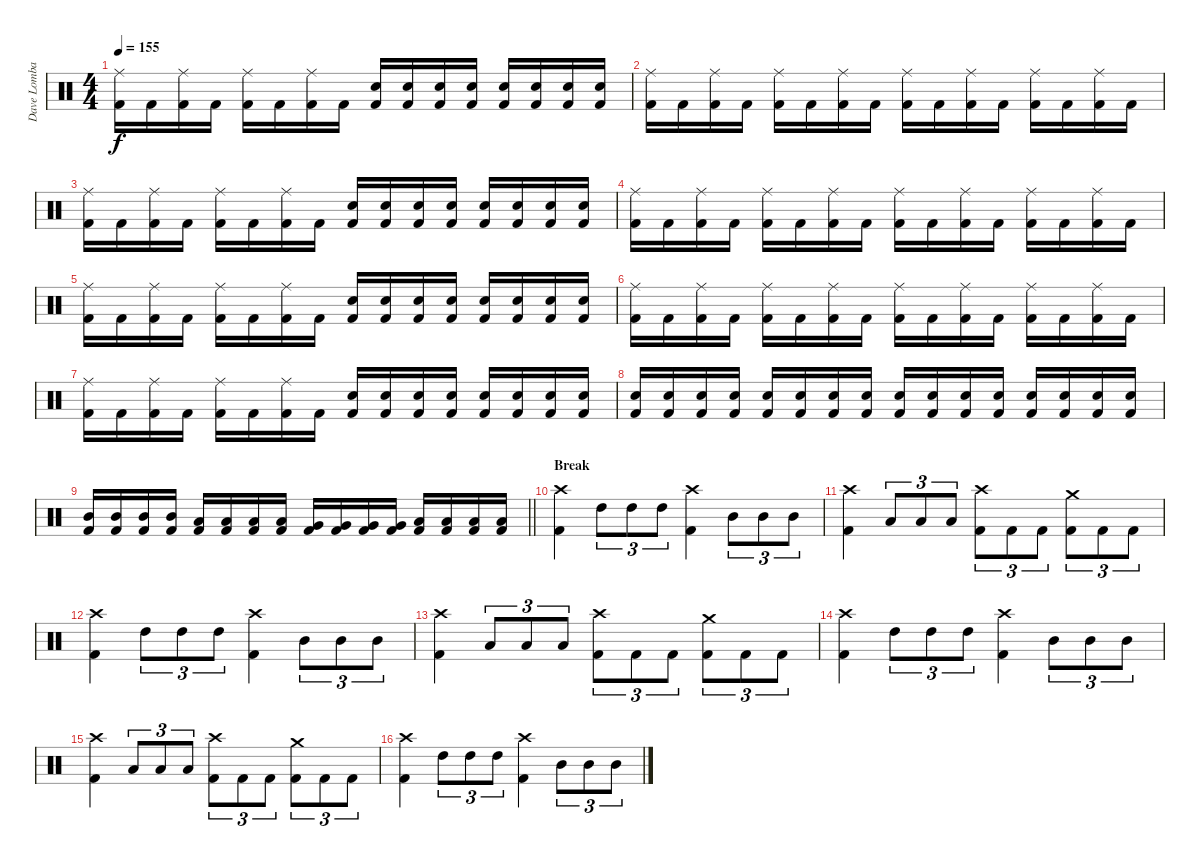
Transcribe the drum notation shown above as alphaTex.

\track ("Dave Lombardo (Drums)" "Dave Lomba") {instrument percussion}
\staff {score}
\articulation defaults
\ts (4 4)
\tempo 155
\clef neutral
\ks c
("Ride (middle)" "Kick (hit) 2").16{dy f} "Kick (hit) 2".16 ("Ride (middle)" "Kick (hit) 2").16 "Kick (hit) 2".16 ("Ride (middle)" "Kick (hit) 2").16 "Kick (hit) 2".16 ("Ride (middle)" "Kick (hit) 2").16 "Kick (hit) 2".16 ("Snare (hit) 2" "Kick (hit) 2").16 ("Snare (hit) 2" "Kick (hit) 2").16 ("Snare (hit) 2" "Kick (hit) 2").16 ("Snare (hit) 2" "Kick (hit) 2").16 ("Snare (hit) 2" "Kick (hit) 2").16 ("Snare (hit) 2" "Kick (hit) 2").16 ("Snare (hit) 2" "Kick (hit) 2").16 ("Snare (hit) 2" "Kick (hit) 2").16 |
("Ride (middle)" "Kick (hit) 2").16 "Kick (hit) 2".16 ("Ride (middle)" "Kick (hit) 2").16 "Kick (hit) 2".16 ("Ride (middle)" "Kick (hit) 2").16 "Kick (hit) 2".16 ("Ride (middle)" "Kick (hit) 2").16 "Kick (hit) 2".16 ("Ride (middle)" "Kick (hit) 2").16 "Kick (hit) 2".16 ("Ride (middle)" "Kick (hit) 2").16 "Kick (hit) 2".16 ("Ride (middle)" "Kick (hit) 2").16 "Kick (hit) 2".16 ("Ride (middle)" "Kick (hit) 2").16 "Kick (hit) 2".16 |
("Ride (middle)" "Kick (hit) 2").16 "Kick (hit) 2".16 ("Ride (middle)" "Kick (hit) 2").16 "Kick (hit) 2".16 ("Ride (middle)" "Kick (hit) 2").16 "Kick (hit) 2".16 ("Ride (middle)" "Kick (hit) 2").16 "Kick (hit) 2".16 ("Snare (hit) 2" "Kick (hit) 2").16 ("Snare (hit) 2" "Kick (hit) 2").16 ("Snare (hit) 2" "Kick (hit) 2").16 ("Snare (hit) 2" "Kick (hit) 2").16 ("Snare (hit) 2" "Kick (hit) 2").16 ("Snare (hit) 2" "Kick (hit) 2").16 ("Snare (hit) 2" "Kick (hit) 2").16 ("Snare (hit) 2" "Kick (hit) 2").16 |
("Ride (middle)" "Kick (hit) 2").16 "Kick (hit) 2".16 ("Ride (middle)" "Kick (hit) 2").16 "Kick (hit) 2".16 ("Ride (middle)" "Kick (hit) 2").16 "Kick (hit) 2".16 ("Ride (middle)" "Kick (hit) 2").16 "Kick (hit) 2".16 ("Ride (middle)" "Kick (hit) 2").16 "Kick (hit) 2".16 ("Ride (middle)" "Kick (hit) 2").16 "Kick (hit) 2".16 ("Ride (middle)" "Kick (hit) 2").16 "Kick (hit) 2".16 ("Ride (middle)" "Kick (hit) 2").16 "Kick (hit) 2".16 |
("Ride (middle)" "Kick (hit) 2").16 "Kick (hit) 2".16 ("Ride (middle)" "Kick (hit) 2").16 "Kick (hit) 2".16 ("Ride (middle)" "Kick (hit) 2").16 "Kick (hit) 2".16 ("Ride (middle)" "Kick (hit) 2").16 "Kick (hit) 2".16 ("Snare (hit) 2" "Kick (hit) 2").16 ("Snare (hit) 2" "Kick (hit) 2").16 ("Snare (hit) 2" "Kick (hit) 2").16 ("Snare (hit) 2" "Kick (hit) 2").16 ("Snare (hit) 2" "Kick (hit) 2").16 ("Snare (hit) 2" "Kick (hit) 2").16 ("Snare (hit) 2" "Kick (hit) 2").16 ("Snare (hit) 2" "Kick (hit) 2").16 |
("Ride (middle)" "Kick (hit) 2").16 "Kick (hit) 2".16 ("Ride (middle)" "Kick (hit) 2").16 "Kick (hit) 2".16 ("Ride (middle)" "Kick (hit) 2").16 "Kick (hit) 2".16 ("Ride (middle)" "Kick (hit) 2").16 "Kick (hit) 2".16 ("Ride (middle)" "Kick (hit) 2").16 "Kick (hit) 2".16 ("Ride (middle)" "Kick (hit) 2").16 "Kick (hit) 2".16 ("Ride (middle)" "Kick (hit) 2").16 "Kick (hit) 2".16 ("Ride (middle)" "Kick (hit) 2").16 "Kick (hit) 2".16 |
("Ride (middle)" "Kick (hit) 2").16 "Kick (hit) 2".16 ("Ride (middle)" "Kick (hit) 2").16 "Kick (hit) 2".16 ("Ride (middle)" "Kick (hit) 2").16 "Kick (hit) 2".16 ("Ride (middle)" "Kick (hit) 2").16 "Kick (hit) 2".16 ("Snare (hit) 2" "Kick (hit) 2").16 ("Snare (hit) 2" "Kick (hit) 2").16 ("Snare (hit) 2" "Kick (hit) 2").16 ("Snare (hit) 2" "Kick (hit) 2").16 ("Snare (hit) 2" "Kick (hit) 2").16 ("Snare (hit) 2" "Kick (hit) 2").16 ("Snare (hit) 2" "Kick (hit) 2").16 ("Snare (hit) 2" "Kick (hit) 2").16 |
("Snare (hit) 2" "Kick (hit) 2").16 ("Snare (hit) 2" "Kick (hit) 2").16 ("Snare (hit) 2" "Kick (hit) 2").16 ("Snare (hit) 2" "Kick (hit) 2").16 ("Snare (hit) 2" "Kick (hit) 2").16 ("Snare (hit) 2" "Kick (hit) 2").16 ("Snare (hit) 2" "Kick (hit) 2").16 ("Snare (hit) 2" "Kick (hit) 2").16 ("Snare (hit) 2" "Kick (hit) 2").16 ("Snare (hit) 2" "Kick (hit) 2").16 ("Snare (hit) 2" "Kick (hit) 2").16 ("Snare (hit) 2" "Kick (hit) 2").16 ("Snare (hit) 2" "Kick (hit) 2").16 ("Snare (hit) 2" "Kick (hit) 2").16 ("Snare (hit) 2" "Kick (hit) 2").16 ("Snare (hit) 2" "Kick (hit) 2").16 |
\barLineRight lightlight
("Mid Tom (hit)" "Kick (hit) 2").16 ("Mid Tom (hit)" "Kick (hit) 2").16 ("Mid Tom (hit)" "Kick (hit) 2").16 ("Mid Tom (hit)" "Kick (hit) 2").16 ("Low Tom (hit)" "Kick (hit) 2").16 ("Low Tom (hit)" "Kick (hit) 2").16 ("Low Tom (hit)" "Kick (hit) 2").16 ("Low Tom (hit)" "Kick (hit) 2").16 ("Very Low Tom (hit)" "Kick (hit) 2").16 ("Very Low Tom (hit)" "Kick (hit) 2").16 ("Very Low Tom (hit)" "Kick (hit) 2").16 ("Very Low Tom (hit)" "Kick (hit) 2").16 ("Low Floor Tom (hit)" "Kick (hit) 2").16 ("Low Floor Tom (hit)" "Kick (hit) 2").16 ("Low Floor Tom (hit)" "Kick (hit) 2").16 ("Low Floor Tom (hit)" "Kick (hit) 2").16 |
\section ("" "Break")
("Crash high (hit)" "Kick (hit) 2").4 "High Tom (hit)".8{tu (3 2)} "High Tom (hit)".8{tu (3 2)} "High Tom (hit)".8{tu (3 2)} ("Crash high (hit)" "Kick (hit) 2").4 "Mid Tom (hit)".8{tu (3 2)} "Mid Tom (hit)".8{tu (3 2)} "Mid Tom (hit)".8{tu (3 2)} |
("Crash high (hit)" "Kick (hit) 2").4 "Low Tom (hit)".8{tu (3 2)} "Low Tom (hit)".8{tu (3 2)} "Low Tom (hit)".8{tu (3 2)} ("Crash high (hit)" "Kick (hit) 2").8{tu (3 2)} "Kick (hit) 2".8{tu (3 2)} "Kick (hit) 2".8{tu (3 2)} ("Crash medium (hit)" "Kick (hit) 2").8{tu (3 2)} "Kick (hit) 2".8{tu (3 2)} "Kick (hit) 2".8{tu (3 2)} |
("Crash high (hit)" "Kick (hit) 2").4 "High Tom (hit)".8{tu (3 2)} "High Tom (hit)".8{tu (3 2)} "High Tom (hit)".8{tu (3 2)} ("Crash high (hit)" "Kick (hit) 2").4 "Mid Tom (hit)".8{tu (3 2)} "Mid Tom (hit)".8{tu (3 2)} "Mid Tom (hit)".8{tu (3 2)} |
("Crash high (hit)" "Kick (hit) 2").4 "Low Tom (hit)".8{tu (3 2)} "Low Tom (hit)".8{tu (3 2)} "Low Tom (hit)".8{tu (3 2)} ("Crash high (hit)" "Kick (hit) 2").8{tu (3 2)} "Kick (hit) 2".8{tu (3 2)} "Kick (hit) 2".8{tu (3 2)} ("Crash medium (hit)" "Kick (hit) 2").8{tu (3 2)} "Kick (hit) 2".8{tu (3 2)} "Kick (hit) 2".8{tu (3 2)} |
("Crash high (hit)" "Kick (hit) 2").4 "High Tom (hit)".8{tu (3 2)} "High Tom (hit)".8{tu (3 2)} "High Tom (hit)".8{tu (3 2)} ("Crash high (hit)" "Kick (hit) 2").4 "Mid Tom (hit)".8{tu (3 2)} "Mid Tom (hit)".8{tu (3 2)} "Mid Tom (hit)".8{tu (3 2)} |
("Crash high (hit)" "Kick (hit) 2").4 "Low Tom (hit)".8{tu (3 2)} "Low Tom (hit)".8{tu (3 2)} "Low Tom (hit)".8{tu (3 2)} ("Crash high (hit)" "Kick (hit) 2").8{tu (3 2)} "Kick (hit) 2".8{tu (3 2)} "Kick (hit) 2".8{tu (3 2)} ("Crash medium (hit)" "Kick (hit) 2").8{tu (3 2)} "Kick (hit) 2".8{tu (3 2)} "Kick (hit) 2".8{tu (3 2)} |
("Crash high (hit)" "Kick (hit) 2").4 "High Tom (hit)".8{tu (3 2)} "High Tom (hit)".8{tu (3 2)} "High Tom (hit)".8{tu (3 2)} ("Crash high (hit)" "Kick (hit) 2").4 "Mid Tom (hit)".8{tu (3 2)} "Mid Tom (hit)".8{tu (3 2)} "Mid Tom (hit)".8{tu (3 2)}
